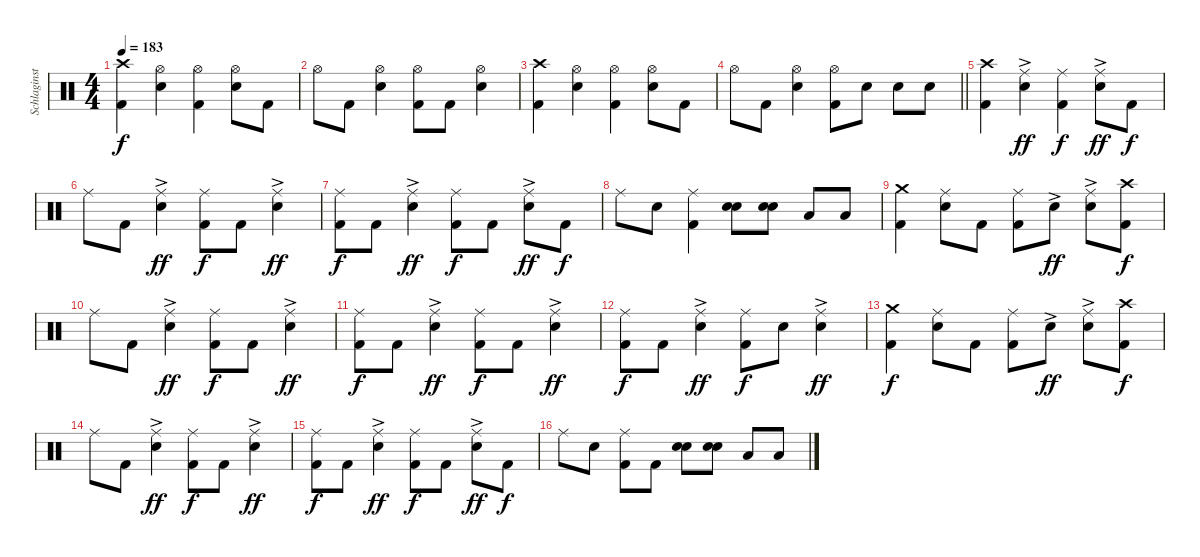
\track ("Schlaginstrumente - Auswahl" "Schlaginst") {instrument percussion}
\staff {score}
\articulation defaults
\ts (4 4)
\tempo 183
\clef neutral
\ks c
("Crash high (hit)" "Kick (hit) 2").4{dy f} ("Hi-Hat (open)" "Snare (hit) 2").4 ("Hi-Hat (open)" "Kick (hit) 2").4 ("Hi-Hat (open)" "Snare (hit) 2").8 "Kick (hit) 2".8 |
"Hi-Hat (open)".8 "Kick (hit) 2".8 ("Hi-Hat (open)" "Snare (hit) 2").4 ("Hi-Hat (open)" "Kick (hit) 2").8 "Kick (hit) 2".8 ("Hi-Hat (open)" "Snare (hit) 2").4 |
("Crash high (hit)" "Kick (hit) 2").4 ("Hi-Hat (open)" "Snare (hit) 2").4 ("Hi-Hat (open)" "Kick (hit) 2").4 ("Hi-Hat (open)" "Snare (hit) 2").8 "Kick (hit) 2".8 |
\barLineRight lightlight "Hi-Hat (open)".8 "Kick (hit) 2".8
("Hi-Hat (open)" "Snare (hit) 2").4 ("Hi-Hat (open)" "Kick (hit) 2").8 "Snare (hit) 2".8 "Snare (hit) 2".8 "Snare (hit) 2".8 |
("Crash high (hit)" "Kick (hit) 2").4 ("Ride (middle)"{ac} "Snare (hit) 2").4{dy ff} ("Ride (middle)" "Kick (hit) 2").4{dy f} ("Ride (middle)"{ac} "Snare (hit) 2").8{dy ff} "Kick (hit) 2".8{dy f} |
"Ride (middle)".8 "Kick (hit) 2".8 ("Ride (middle)"{ac} "Snare (hit) 2").4{dy ff} ("Ride (middle)" "Kick (hit) 2").8{dy f} "Kick (hit) 2".8 ("Ride (middle)"{ac} "Snare (hit) 2").4{dy ff} |
("Ride (middle)" "Kick (hit) 2").8{dy f} "Kick (hit) 2".8 ("Ride (middle)"{ac} "Snare (hit) 2").4{dy ff} ("Ride (middle)" "Kick (hit) 2").8{dy f} "Kick (hit) 2".8 ("Ride (middle)"{ac} "Snare (hit) 2").8{dy ff} "Kick (hit) 2".8{dy f} |
"Ride (middle)".8 "Snare (hit) 2".8 ("Ride (middle)" "Kick (hit) 2").4 ("Snare (hit) 2" "Snare (hit) 2").8{bd 120} ("Snare (hit) 2" "Snare (hit) 2").8{bd 120} "Low Tom (hit)".8 "Low Tom (hit)".8 |
("Crash medium (hit)" "Kick (hit) 2").4 ("Ride (middle)" "Snare (hit) 2").8 "Kick (hit) 2".8 ("Ride (middle)" "Kick (hit) 2").8 "Snare (hit) 2"{ac}.8{dy ff} ("Ride (middle)"{ac} "Snare (hit) 2"{ac}).8 ("Crash high (hit)" "Kick (hit) 2").8{dy f} |
"Ride (middle)".8 "Kick (hit) 2".8 ("Ride (middle)"{ac} "Snare (hit) 2").4{dy ff} ("Ride (middle)" "Kick (hit) 2").8{dy f} "Kick (hit) 2".8 ("Ride (middle)"{ac} "Snare (hit) 2").4{dy ff} |
("Ride (middle)" "Kick (hit) 2").8{dy f} "Kick (hit) 2".8 ("Ride (middle)"{ac} "Snare (hit) 2").4{dy ff} ("Ride (middle)" "Kick (hit) 2").8{dy f} "Kick (hit) 2".8 ("Ride (middle)"{ac} "Snare (hit) 2").4{dy ff} |
("Ride (middle)" "Kick (hit) 2").8{dy f} "Kick (hit) 2".8 ("Ride (middle)"{ac} "Snare (hit) 2").4{dy ff} ("Ride (middle)" "Kick (hit) 2").8{dy f} "Snare (hit) 2".8 ("Ride (middle)"{ac} "Snare (hit) 2").4{dy ff} |
("Crash medium (hit)" "Kick (hit) 2").4{dy f} ("Ride (middle)" "Snare (hit) 2").8 "Kick (hit) 2".8 ("Ride (middle)" "Kick (hit) 2").8 "Snare (hit) 2"{ac}.8{dy ff} ("Ride (middle)"{ac} "Snare (hit) 2"{ac}).8 ("Crash high (hit)" "Kick (hit) 2").8{dy f} |
"Ride (middle)".8 "Kick (hit) 2".8 ("Ride (middle)"{ac} "Snare (hit) 2").4{dy ff} ("Ride (middle)" "Kick (hit) 2").8{dy f} "Kick (hit) 2".8 ("Ride (middle)"{ac} "Snare (hit) 2").4{dy ff} |
("Ride (middle)" "Kick (hit) 2").8{dy f} "Kick (hit) 2".8 ("Ride (middle)"{ac} "Snare (hit) 2").4{dy ff} ("Ride (middle)" "Kick (hit) 2").8{dy f} "Kick (hit) 2".8 ("Ride (middle)"{ac} "Snare (hit) 2").8{dy ff} "Kick (hit) 2".8{dy f} |
"Ride (middle)".8 "Snare (hit) 2".8 ("Ride (middle)" "Kick (hit) 2").8 "Kick (hit) 2".8 ("Snare (hit) 2" "Snare (hit) 2").8{bd 120} ("Snare (hit) 2" "Snare (hit) 2").8{bd 120} "Low Tom (hit)".8 "Low Tom (hit)".8
